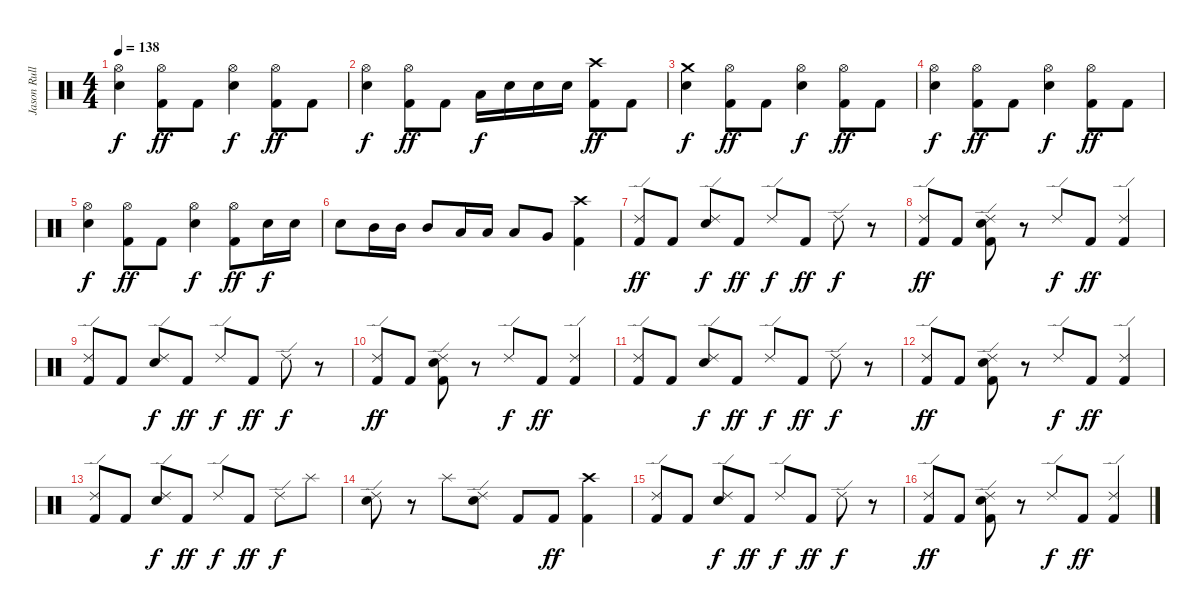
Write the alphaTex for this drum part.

\track ("Jason Rullo" "Jason Rull") {instrument percussion}
\staff {score}
\articulation defaults
\ts (4 4)
\tempo 138
\clef neutral
\ks c
("Electric Snare (hit)" "Hi-Hat (open)").4{dy f} ("Kick (hit) 2" "Hi-Hat (open)").8{dy ff} "Kick (hit) 2".8 ("Electric Snare (hit)" "Hi-Hat (open)").4{dy f} ("Kick (hit) 2" "Hi-Hat (open)").8{dy ff} "Kick (hit) 2".8 |
("Electric Snare (hit)" "Hi-Hat (open)").4{dy f} ("Kick (hit) 2" "Hi-Hat (open)").8{dy ff} "Kick (hit) 2".8 "Low Tom (hit)".16{dy f} "Electric Snare (hit)".16 "Electric Snare (hit)".16 "Electric Snare (hit)".16 ("Kick (hit) 2" "Crash high (hit)").8{dy ff} "Kick (hit) 2".8 |
("Electric Snare (hit)" "Crash medium (hit)").4{dy f} ("Kick (hit) 2" "Hi-Hat (open)").8{dy ff} "Kick (hit) 2".8 ("Electric Snare (hit)" "Hi-Hat (open)").4{dy f} ("Kick (hit) 2" "Hi-Hat (open)").8{dy ff} "Kick (hit) 2".8 |
("Electric Snare (hit)" "Hi-Hat (open)").4{dy f} ("Kick (hit) 2" "Hi-Hat (open)").8{dy ff} "Kick (hit) 2".8 ("Electric Snare (hit)" "Hi-Hat (open)").4{dy f} ("Kick (hit) 2" "Hi-Hat (open)").8{dy ff} "Kick (hit) 2".8 |
("Electric Snare (hit)" "Hi-Hat (open)").4{dy f} ("Kick (hit) 2" "Hi-Hat (open)").8{dy ff} "Kick (hit) 2".8 ("Electric Snare (hit)" "Hi-Hat (open)").4{dy f} ("Kick (hit) 2" "Hi-Hat (open)").8{dy ff} "Electric Snare (hit)".16{dy f} "Electric Snare (hit)".16 |
"Electric Snare (hit)".8 "Mid Tom (hit)".16 "Mid Tom (hit)".16 "Mid Tom (hit)".8 "Low Tom (hit)".16 "Low Tom (hit)".16 "Low Tom (hit)".8 "Very Low Tom (hit)".8 ("Kick (hit) 2" "Crash high (hit)").4 |
("Kick (hit) 2" "Ride (edge) 2").8{dy ff} "Kick (hit) 2".8 ("Electric Snare (hit)" "Ride (edge) 2").8{dy f} "Kick (hit) 2".8{dy ff} "Ride (edge) 2".8{dy f} "Kick (hit) 2".8{dy ff} "Ride (edge) 2".8{dy f} r.8 |
("Kick (hit) 2" "Ride (edge) 2").8{dy ff} "Kick (hit) 2".8 ("Kick (hit) 2" "Electric Snare (hit)" "Ride (edge) 2").8 r.8 "Ride (edge) 2".8{dy f} "Kick (hit) 2".8{dy ff} ("Kick (hit) 2" "Ride (edge) 2").4 |
("Kick (hit) 2" "Ride (edge) 2").8 "Kick (hit) 2".8 ("Electric Snare (hit)" "Ride (edge) 2").8{dy f} "Kick (hit) 2".8{dy ff} "Ride (edge) 2".8{dy f} "Kick (hit) 2".8{dy ff} "Ride (edge) 2".8{dy f} r.8 |
("Kick (hit) 2" "Ride (edge) 2").8{dy ff} "Kick (hit) 2".8 ("Kick (hit) 2" "Electric Snare (hit)" "Ride (edge) 2").8 r.8 "Ride (edge) 2".8{dy f} "Kick (hit) 2".8{dy ff} ("Kick (hit) 2" "Ride (edge) 2").4 |
("Kick (hit) 2" "Ride (edge) 2").8 "Kick (hit) 2".8 ("Electric Snare (hit)" "Ride (edge) 2").8{dy f} "Kick (hit) 2".8{dy ff} "Ride (edge) 2".8{dy f} "Kick (hit) 2".8{dy ff} "Ride (edge) 2".8{dy f} r.8 |
("Kick (hit) 2" "Ride (edge) 2").8{dy ff} "Kick (hit) 2".8 ("Kick (hit) 2" "Electric Snare (hit)" "Ride (edge) 2").8 r.8 "Ride (edge) 2".8{dy f} "Kick (hit) 2".8{dy ff} ("Kick (hit) 2" "Ride (edge) 2").4 |
("Kick (hit) 2" "Ride (edge) 2").8 "Kick (hit) 2".8 ("Electric Snare (hit)" "Ride (edge) 2").8{dy f} "Kick (hit) 2".8{dy ff} "Ride (edge) 2".8{dy f} "Kick (hit) 2".8{dy ff} "Ride (edge) 2".8{dy f} "Splash (hit)".8 |
("Electric Snare (hit)" "Ride (edge) 2").8 r.8 "Splash (hit)".8 ("Electric Snare (hit)" "Ride (edge) 2").8 "Kick (hit) 2".8 "Kick (hit) 2".8{dy ff} ("Kick (hit) 2" "Crash high (hit)").4 |
("Kick (hit) 2" "Ride (edge) 2").8 "Kick (hit) 2".8 ("Electric Snare (hit)" "Ride (edge) 2").8{dy f} "Kick (hit) 2".8{dy ff} "Ride (edge) 2".8{dy f} "Kick (hit) 2".8{dy ff} "Ride (edge) 2".8{dy f} r.8 |
("Kick (hit) 2" "Ride (edge) 2").8{dy ff} "Kick (hit) 2".8 ("Kick (hit) 2" "Electric Snare (hit)" "Ride (edge) 2").8 r.8 "Ride (edge) 2".8{dy f} "Kick (hit) 2".8{dy ff} ("Kick (hit) 2" "Ride (edge) 2").4
